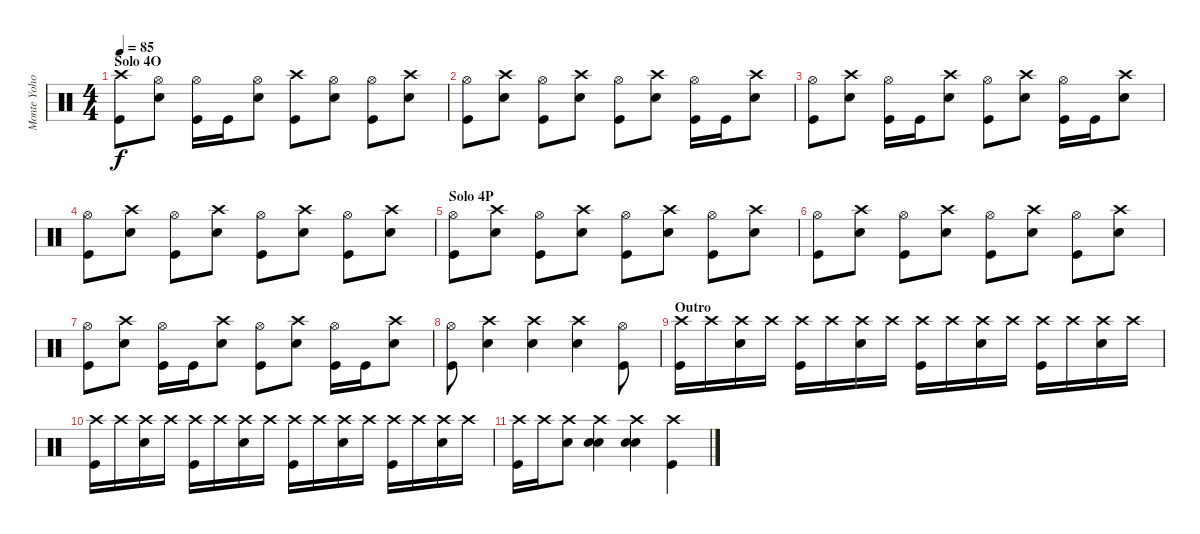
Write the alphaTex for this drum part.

\track ("Monte Yoho - Drums" "Monte Yoho") {instrument percussion}
\staff {score}
\articulation defaults
\ts (4 4)
\section ("" "Solo 4O")
\tempo 85
\clef neutral
\ks c
("Crash high (hit)" "Kick (hit)").8{dy f} ("Hi-Hat (open)" "Snare (hit) 2").8 ("Hi-Hat (open)" "Kick (hit)").16 "Kick (hit)".16 ("Hi-Hat (open)" "Snare (hit) 2").8 ("Crash high (hit)" "Kick (hit)").8 ("Hi-Hat (open)" "Snare (hit) 2").8 ("Hi-Hat (open)" "Kick (hit)").8 ("Crash high (hit)" "Snare (hit) 2").8 |
("Hi-Hat (open)" "Kick (hit)").8 ("Crash high (hit)" "Snare (hit) 2").8 ("Hi-Hat (open)" "Kick (hit)").8 ("Crash high (hit)" "Snare (hit) 2").8 ("Hi-Hat (open)" "Kick (hit)").8 ("Crash high (hit)" "Snare (hit) 2").8 ("Hi-Hat (open)" "Kick (hit)").16 "Kick (hit)".16 ("Crash high (hit)" "Snare (hit) 2").8 |
("Hi-Hat (open)" "Kick (hit)").8 ("Crash high (hit)" "Snare (hit) 2").8 ("Hi-Hat (open)" "Kick (hit)").16 "Kick (hit)".16 ("Crash high (hit)" "Snare (hit) 2").8 ("Hi-Hat (open)" "Kick (hit)").8 ("Crash high (hit)" "Snare (hit) 2").8 ("Hi-Hat (open)" "Kick (hit)").16 "Kick (hit)".16 ("Crash high (hit)" "Snare (hit) 2").8 |
("Hi-Hat (open)" "Kick (hit)").8 ("Crash high (hit)" "Snare (hit) 2").8 ("Hi-Hat (open)" "Kick (hit)").8 ("Crash high (hit)" "Snare (hit) 2").8 ("Hi-Hat (open)" "Kick (hit)").8 ("Crash high (hit)" "Snare (hit) 2").8 ("Hi-Hat (open)" "Kick (hit)").8 ("Crash high (hit)" "Snare (hit) 2").8 |
\section ("" "Solo 4P")
("Hi-Hat (open)" "Kick (hit)").8 ("Crash high (hit)" "Snare (hit) 2").8 ("Hi-Hat (open)" "Kick (hit)").8 ("Crash high (hit)" "Snare (hit) 2").8 ("Hi-Hat (open)" "Kick (hit)").8 ("Crash high (hit)" "Snare (hit) 2").8 ("Hi-Hat (open)" "Kick (hit)").8 ("Crash high (hit)" "Snare (hit) 2").8 |
("Hi-Hat (open)" "Kick (hit)").8 ("Crash high (hit)" "Snare (hit) 2").8 ("Hi-Hat (open)" "Kick (hit)").8 ("Crash high (hit)" "Snare (hit) 2").8 ("Hi-Hat (open)" "Kick (hit)").8 ("Crash high (hit)" "Snare (hit) 2").8 ("Hi-Hat (open)" "Kick (hit)").8 ("Crash high (hit)" "Snare (hit) 2").8 |
("Hi-Hat (open)" "Kick (hit)").8 ("Crash high (hit)" "Snare (hit) 2").8 ("Hi-Hat (open)" "Kick (hit)").16 "Kick (hit)".16 ("Crash high (hit)" "Snare (hit) 2").8 ("Hi-Hat (open)" "Kick (hit)").8 ("Crash high (hit)" "Snare (hit) 2").8 ("Hi-Hat (open)" "Kick (hit)").16 "Kick (hit)".16 ("Crash high (hit)" "Snare (hit) 2").8 |
("Hi-Hat (open)" "Kick (hit)").8 ("Crash high (hit)" "Snare (hit) 2").4 ("Crash high (hit)" "Snare (hit) 2").4 ("Crash high (hit)" "Snare (hit) 2").4 ("Hi-Hat (open)" "Kick (hit)").8 |
\section ("" "Outro")
("Crash high (hit)" "Kick (hit)").16 "Crash high (hit)".16 ("Crash high (hit)" "Snare (hit) 2").16 "Crash high (hit)".16 ("Crash high (hit)" "Kick (hit)").16 "Crash high (hit)".16 ("Crash high (hit)" "Snare (hit) 2").16 "Crash high (hit)".16 ("Crash high (hit)" "Kick (hit)").16 "Crash high (hit)".16 ("Crash high (hit)" "Snare (hit) 2").16 "Crash high (hit)".16 ("Crash high (hit)" "Kick (hit)").16 "Crash high (hit)".16 ("Crash high (hit)" "Snare (hit) 2").16 "Crash high (hit)".16 |
("Crash high (hit)" "Kick (hit)").16 "Crash high (hit)".16 ("Crash high (hit)" "Snare (hit) 2").16 "Crash high (hit)".16 ("Crash high (hit)" "Kick (hit)").16 "Crash high (hit)".16 ("Crash high (hit)" "Snare (hit) 2").16 "Crash high (hit)".16 ("Crash high (hit)" "Kick (hit)").16 "Crash high (hit)".16 ("Crash high (hit)" "Snare (hit) 2").16 "Crash high (hit)".16 ("Crash high (hit)" "Kick (hit)").16 "Crash high (hit)".16 ("Crash high (hit)" "Snare (hit) 2").16 "Crash high (hit)".16 |
("Crash high (hit)" "Kick (hit)").16 "Crash high (hit)".16 ("Crash high (hit)" "Snare (hit) 2").8 ("Crash high (hit)" "Snare (hit) 2" "Snare (hit) 2").4 ("Crash high (hit)" "Snare (hit) 2" "Snare (hit) 2").4 ("Crash high (hit)" "Kick (hit)").4
